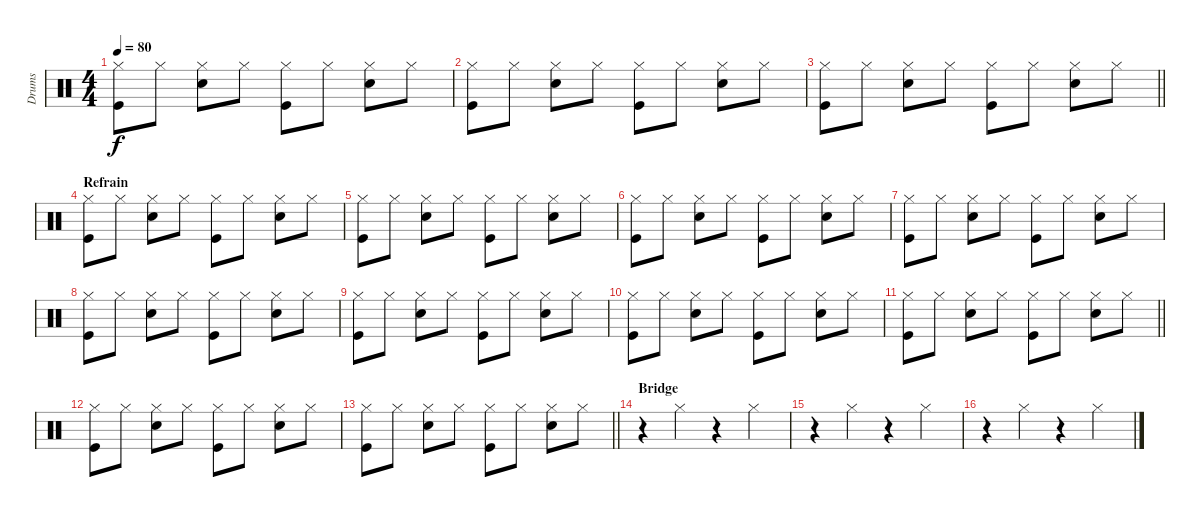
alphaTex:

\track ("Drums" "Drums") {instrument percussion}
\staff {score}
\articulation defaults
\ts (4 4)
\tempo 80
\clef neutral
\ks c
("Hi-Hat (closed)" "Kick (hit)").8{dy f} "Hi-Hat (closed)".8 ("Hi-Hat (closed)" "Snare (hit) 2").8 "Hi-Hat (closed)".8 ("Hi-Hat (closed)" "Kick (hit)").8 "Hi-Hat (closed)".8 ("Hi-Hat (closed)" "Snare (hit) 2").8 "Hi-Hat (closed)".8 |
("Hi-Hat (closed)" "Kick (hit)").8 "Hi-Hat (closed)".8 ("Hi-Hat (closed)" "Snare (hit) 2").8 "Hi-Hat (closed)".8 ("Hi-Hat (closed)" "Kick (hit)").8 "Hi-Hat (closed)".8 ("Hi-Hat (closed)" "Snare (hit) 2").8 "Hi-Hat (closed)".8 |
\barLineRight lightlight
("Hi-Hat (closed)" "Kick (hit)").8 "Hi-Hat (closed)".8 ("Hi-Hat (closed)" "Snare (hit) 2").8 "Hi-Hat (closed)".8 ("Hi-Hat (closed)" "Kick (hit)").8 "Hi-Hat (closed)".8 ("Hi-Hat (closed)" "Snare (hit) 2").8 "Hi-Hat (closed)".8 |
\section ("" "Refrain")
("Hi-Hat (closed)" "Kick (hit)").8 "Hi-Hat (closed)".8 ("Hi-Hat (closed)" "Snare (hit) 2").8 "Hi-Hat (closed)".8 ("Hi-Hat (closed)" "Kick (hit)").8 "Hi-Hat (closed)".8 ("Hi-Hat (closed)" "Snare (hit) 2").8 "Hi-Hat (closed)".8 |
("Hi-Hat (closed)" "Kick (hit)").8 "Hi-Hat (closed)".8 ("Hi-Hat (closed)" "Snare (hit) 2").8 "Hi-Hat (closed)".8 ("Hi-Hat (closed)" "Kick (hit)").8 "Hi-Hat (closed)".8 ("Hi-Hat (closed)" "Snare (hit) 2").8 "Hi-Hat (closed)".8 |
("Hi-Hat (closed)" "Kick (hit)").8 "Hi-Hat (closed)".8 ("Hi-Hat (closed)" "Snare (hit) 2").8 "Hi-Hat (closed)".8 ("Hi-Hat (closed)" "Kick (hit)").8 "Hi-Hat (closed)".8 ("Hi-Hat (closed)" "Snare (hit) 2").8 "Hi-Hat (closed)".8 |
("Hi-Hat (closed)" "Kick (hit)").8 "Hi-Hat (closed)".8 ("Hi-Hat (closed)" "Snare (hit) 2").8 "Hi-Hat (closed)".8 ("Hi-Hat (closed)" "Kick (hit)").8 "Hi-Hat (closed)".8 ("Hi-Hat (closed)" "Snare (hit) 2").8 "Hi-Hat (closed)".8 |
("Hi-Hat (closed)" "Kick (hit)").8 "Hi-Hat (closed)".8 ("Hi-Hat (closed)" "Snare (hit) 2").8 "Hi-Hat (closed)".8 ("Hi-Hat (closed)" "Kick (hit)").8 "Hi-Hat (closed)".8 ("Hi-Hat (closed)" "Snare (hit) 2").8 "Hi-Hat (closed)".8 |
("Hi-Hat (closed)" "Kick (hit)").8 "Hi-Hat (closed)".8 ("Hi-Hat (closed)" "Snare (hit) 2").8 "Hi-Hat (closed)".8 ("Hi-Hat (closed)" "Kick (hit)").8 "Hi-Hat (closed)".8 ("Hi-Hat (closed)" "Snare (hit) 2").8 "Hi-Hat (closed)".8 |
("Hi-Hat (closed)" "Kick (hit)").8 "Hi-Hat (closed)".8 ("Hi-Hat (closed)" "Snare (hit) 2").8 "Hi-Hat (closed)".8 ("Hi-Hat (closed)" "Kick (hit)").8 "Hi-Hat (closed)".8 ("Hi-Hat (closed)" "Snare (hit) 2").8 "Hi-Hat (closed)".8 |
\barLineRight lightlight
("Hi-Hat (closed)" "Kick (hit)").8 "Hi-Hat (closed)".8 ("Hi-Hat (closed)" "Snare (hit) 2").8 "Hi-Hat (closed)".8 ("Hi-Hat (closed)" "Kick (hit)").8 "Hi-Hat (closed)".8 ("Hi-Hat (closed)" "Snare (hit) 2").8 "Hi-Hat (closed)".8 |
("Hi-Hat (closed)" "Kick (hit)").8 "Hi-Hat (closed)".8 ("Hi-Hat (closed)" "Snare (hit) 2").8 "Hi-Hat (closed)".8 ("Hi-Hat (closed)" "Kick (hit)").8 "Hi-Hat (closed)".8 ("Hi-Hat (closed)" "Snare (hit) 2").8 "Hi-Hat (closed)".8 |
\barLineRight lightlight
("Hi-Hat (closed)" "Kick (hit)").8 "Hi-Hat (closed)".8 ("Hi-Hat (closed)" "Snare (hit) 2").8 "Hi-Hat (closed)".8 ("Hi-Hat (closed)" "Kick (hit)").8 "Hi-Hat (closed)".8 ("Hi-Hat (closed)" "Snare (hit) 2").8 "Hi-Hat (closed)".8 |
\section ("" "Bridge")
r.4 "Hi-Hat (closed)".4 r.4 "Hi-Hat (closed)".4 |
r.4 "Hi-Hat (closed)".4 r.4 "Hi-Hat (closed)".4 |
r.4 "Hi-Hat (closed)".4 r.4 "Hi-Hat (closed)".4
